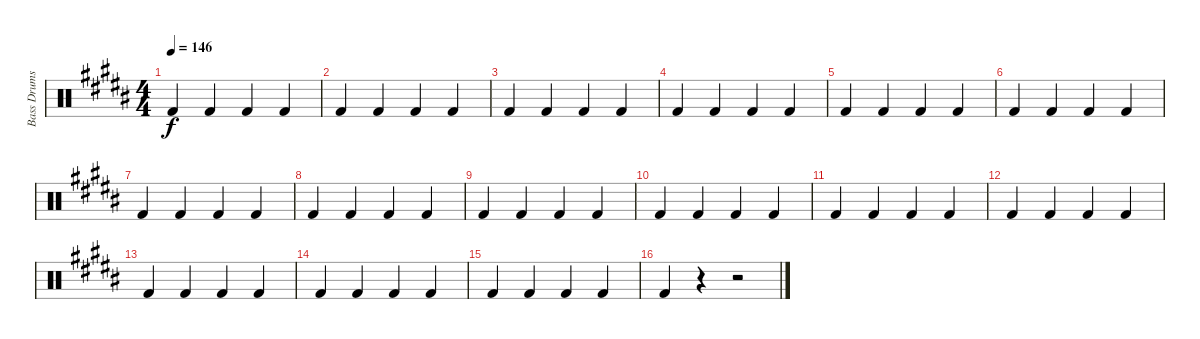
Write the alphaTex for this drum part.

\track ("Bass Drums" "Bass Drums") {instrument percussion}
\staff {score}
\articulation defaults
\ts (4 4)
\tempo 146
\clef neutral
\ks b "Kick (hit) 2".4{dy f} "Kick (hit) 2".4 "Kick (hit) 2".4 "Kick (hit) 2".4
|
"Kick (hit) 2".4 "Kick (hit) 2".4 "Kick (hit) 2".4 "Kick (hit) 2".4 |
"Kick (hit) 2".4 "Kick (hit) 2".4 "Kick (hit) 2".4 "Kick (hit) 2".4 |
"Kick (hit) 2".4 "Kick (hit) 2".4 "Kick (hit) 2".4 "Kick (hit) 2".4 |
"Kick (hit) 2".4 "Kick (hit) 2".4 "Kick (hit) 2".4 "Kick (hit) 2".4 |
"Kick (hit) 2".4 "Kick (hit) 2".4 "Kick (hit) 2".4 "Kick (hit) 2".4 |
"Kick (hit) 2".4 "Kick (hit) 2".4 "Kick (hit) 2".4 "Kick (hit) 2".4 |
"Kick (hit) 2".4 "Kick (hit) 2".4 "Kick (hit) 2".4 "Kick (hit) 2".4 |
"Kick (hit) 2".4 "Kick (hit) 2".4 "Kick (hit) 2".4 "Kick (hit) 2".4 |
"Kick (hit) 2".4 "Kick (hit) 2".4 "Kick (hit) 2".4 "Kick (hit) 2".4 |
"Kick (hit) 2".4 "Kick (hit) 2".4 "Kick (hit) 2".4 "Kick (hit) 2".4 |
"Kick (hit) 2".4 "Kick (hit) 2".4 "Kick (hit) 2".4 "Kick (hit) 2".4 |
"Kick (hit) 2".4 "Kick (hit) 2".4 "Kick (hit) 2".4 "Kick (hit) 2".4 |
"Kick (hit) 2".4 "Kick (hit) 2".4 "Kick (hit) 2".4 "Kick (hit) 2".4 |
"Kick (hit) 2".4 "Kick (hit) 2".4 "Kick (hit) 2".4 "Kick (hit) 2".4 |
"Kick (hit) 2".4 r.4 r.2
